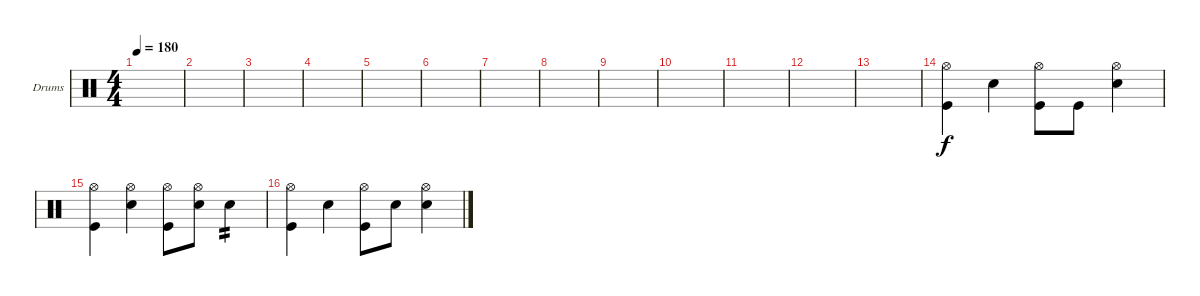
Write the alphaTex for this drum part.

\bracketExtendMode groupsimilarinstruments
\firstSystemTrackNameOrientation horizontal
\otherSystemsTrackNameOrientation horizontal
\track ("Drumkit" "Drums") {instrument percussion}
\staff {score}
\articulation defaults
\ts (4 4)
\tempo 180
\clef neutral
\scale
0.333333
\ks c
|
\scale
0.333333 |
\scale
0.333333 |
\scale
0.333333 |
\scale
0.333333 |
\scale
0.333333 |
\scale
0.333333 |
\scale
0.333333 |
\scale
0.333333 |
\scale
0.333333 |
\scale
0.333333 |
\scale
0.333333 |
\scale
0.333333 |
\scale
0.333333 ("Kick (hit)" "Hi-Hat (open)").4 "Snare (hit) 2".4 ("Kick (hit)" "Hi-Hat (open)").8 "Kick (hit)".8 ("Snare (hit) 2" "Hi-Hat (open)").4 |
\scale
0.333333 ("Kick (hit)" "Hi-Hat (open)").4 ("Snare (hit) 2" "Hi-Hat (open)").4 ("Kick (hit)" "Hi-Hat (open)").8 ("Snare (hit) 2" "Hi-Hat (open)").8 "Snare (hit) 2".4{tp 2} |
\scale
0.333333 ("Kick (hit)" "Hi-Hat (open)").4 "Snare (hit) 2".4 ("Kick (hit)" "Hi-Hat (open)").8 "Snare (hit) 2".8 ("Snare (hit) 2" "Hi-Hat (open)").4
